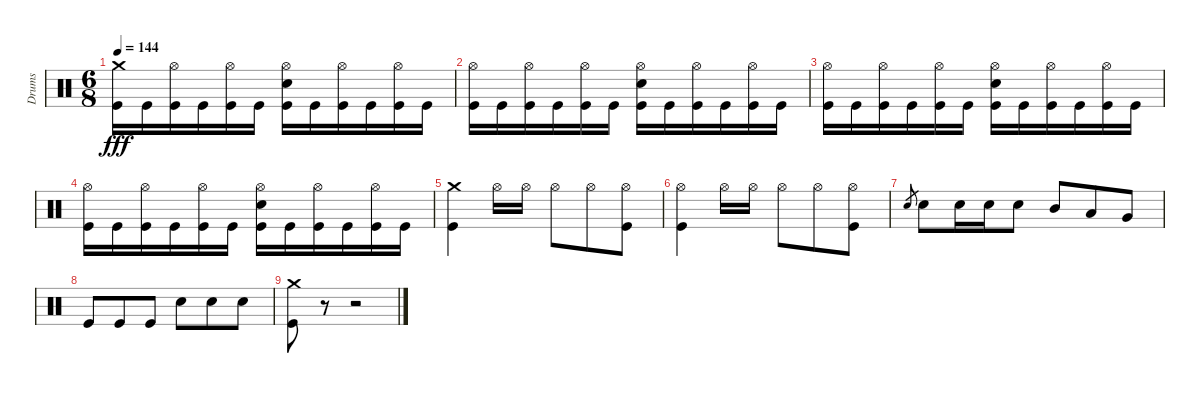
\track ("Drums" "Drums") {instrument percussion}
\staff {score}
\articulation defaults
\ts (6 8)
\tempo 144
\clef neutral
\ks c
("Crash medium (hit)" "Kick (hit)").16{dy fff} "Kick (hit)".16 ("Hi-Hat (open)" "Kick (hit)").16 "Kick (hit)".16 ("Hi-Hat (open)" "Kick (hit)").16 "Kick (hit)".16 ("Hi-Hat (open)" "Snare (hit) 2" "Kick (hit)").16 "Kick (hit)".16 ("Hi-Hat (open)" "Kick (hit)").16 "Kick (hit)".16 ("Hi-Hat (open)" "Kick (hit)").16 "Kick (hit)".16 |
("Hi-Hat (open)" "Kick (hit)").16 "Kick (hit)".16 ("Hi-Hat (open)" "Kick (hit)").16 "Kick (hit)".16 ("Hi-Hat (open)" "Kick (hit)").16 "Kick (hit)".16 ("Hi-Hat (open)" "Snare (hit) 2" "Kick (hit)").16 "Kick (hit)".16 ("Hi-Hat (open)" "Kick (hit)").16 "Kick (hit)".16 ("Hi-Hat (open)" "Kick (hit)").16 "Kick (hit)".16 |
("Hi-Hat (open)" "Kick (hit)").16 "Kick (hit)".16 ("Hi-Hat (open)" "Kick (hit)").16 "Kick (hit)".16 ("Hi-Hat (open)" "Kick (hit)").16 "Kick (hit)".16 ("Hi-Hat (open)" "Snare (hit) 2" "Kick (hit)").16 "Kick (hit)".16 ("Hi-Hat (open)" "Kick (hit)").16 "Kick (hit)".16 ("Hi-Hat (open)" "Kick (hit)").16 "Kick (hit)".16 |
("Hi-Hat (open)" "Kick (hit)").16 "Kick (hit)".16 ("Hi-Hat (open)" "Kick (hit)").16 "Kick (hit)".16 ("Hi-Hat (open)" "Kick (hit)").16 "Kick (hit)".16 ("Hi-Hat (open)" "Snare (hit) 2" "Kick (hit)").16 "Kick (hit)".16 ("Hi-Hat (open)" "Kick (hit)").16 "Kick (hit)".16 ("Hi-Hat (open)" "Kick (hit)").16 "Kick (hit)".16 |
("Crash medium (hit)" "Kick (hit)").4 "Hi-Hat (open)".16 "Hi-Hat (open)".16 "Hi-Hat (open)".8 "Hi-Hat (open)".8 ("Hi-Hat (open)" "Kick (hit)").8 |
("Hi-Hat (open)" "Kick (hit)").4 "Hi-Hat (open)".16 "Hi-Hat (open)".16 "Hi-Hat (open)".8 "Hi-Hat (open)".8 ("Hi-Hat (open)" "Kick (hit)").8 |
"Snare (hit) 2".8{gr} "Snare (hit) 2".8 "Snare (hit) 2".16 "Snare (hit) 2".16 "Snare (hit) 2".8 "Mid Tom (hit)".8 "Low Tom (hit)".8 "Very Low Tom (hit)".8 |
"Kick (hit)".8 "Kick (hit)".8 "Kick (hit)".8 "Snare (hit) 2".8 "Snare (hit) 2".8 "Snare (hit) 2".8 |
("Crash medium (hit)" "Kick (hit)").8 r.8 r.2
